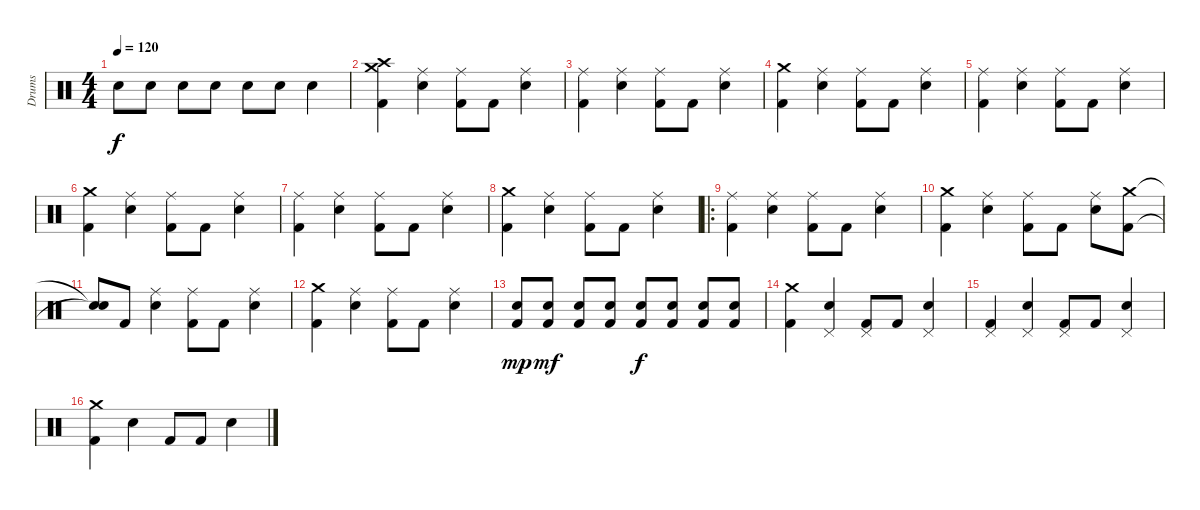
\track ("Drums" "Drums") {instrument percussion}
\staff {score}
\articulation defaults
\ts (4 4)
\tempo 120
\clef neutral
\ks c "Snare (hit) 2".8{dy f} "Snare (hit) 2".8 "Snare (hit) 2".8 "Snare (hit) 2".8 "Snare (hit) 2".8 "Snare (hit) 2".8 "Snare (hit) 2".4
|
("Kick (hit) 2" "Crash high (hit)" "Crash medium (hit)").4 ("Ride (middle)" "Snare (hit) 2").4 ("Ride (middle)" "Kick (hit) 2").8 "Kick (hit) 2".8 ("Ride (middle)" "Snare (hit) 2").4 |
("Ride (middle)" "Kick (hit) 2").4 ("Ride (middle)" "Snare (hit) 2").4 ("Ride (middle)" "Kick (hit) 2").8 "Kick (hit) 2".8 ("Ride (middle)" "Snare (hit) 2").4 |
("Kick (hit) 2" "Crash medium (hit)").4 ("Ride (middle)" "Snare (hit) 2").4 ("Ride (middle)" "Kick (hit) 2").8 "Kick (hit) 2".8 ("Ride (middle)" "Snare (hit) 2").4 |
("Ride (middle)" "Kick (hit) 2").4 ("Ride (middle)" "Snare (hit) 2").4 ("Ride (middle)" "Kick (hit) 2").8 "Kick (hit) 2".8 ("Ride (middle)" "Snare (hit) 2").4 |
("Kick (hit) 2" "Crash medium (hit)").4 ("Snare (hit) 2" "Ride (middle)").4 ("Kick (hit) 2" "Ride (middle)").8 "Kick (hit) 2".8 ("Ride (middle)" "Snare (hit) 2").4 |
("Kick (hit) 2" "Ride (middle)").4 ("Snare (hit) 2" "Ride (middle)").4 ("Kick (hit) 2" "Ride (middle)").8 "Kick (hit) 2".8 ("Snare (hit) 2" "Ride (middle)").4 |
("Kick (hit) 2" "Crash medium (hit)").4 ("Snare (hit) 2" "Ride (middle)").4 ("Kick (hit) 2" "Ride (middle)").8 "Kick (hit) 2".8 ("Snare (hit) 2" "Ride (middle)").4 |
\ro
("Kick (hit) 2" "Ride (middle)").4 ("Snare (hit) 2" "Ride (middle)").4 ("Kick (hit) 2" "Ride (middle)").8 "Kick (hit) 2".8 ("Snare (hit) 2" "Ride (middle)").4 |
("Kick (hit) 2" "Crash medium (hit)").4 ("Ride (middle)" "Snare (hit) 2").4 ("Ride (middle)" "Kick (hit) 2").8 "Kick (hit) 2".8 ("Ride (middle)" "Snare (hit) 2").8 ("Crash medium (hit)" "Kick (hit) 2").8 |
("Snare (hit)"{t} "Snare (hit)"{t}).8 "Kick (hit) 2".8 ("Ride (middle)" "Snare (hit) 2").4 ("Ride (middle)" "Kick (hit) 2").8 "Kick (hit) 2".8 ("Ride (middle)" "Snare (hit) 2").4 |
("Kick (hit) 2" "Crash medium (hit)").4 ("Snare (hit) 2" "Ride (middle)").4 ("Kick (hit) 2" "Ride (middle)").8 "Kick (hit) 2".8 ("Snare (hit) 2" "Ride (middle)").4 |
("Kick (hit) 2" "Snare (hit) 2").8{dy mp} ("Kick (hit) 2" "Snare (hit) 2").8{dy mf} ("Kick (hit) 2" "Snare (hit) 2").8 ("Kick (hit) 2" "Snare (hit) 2").8 ("Kick (hit) 2" "Snare (hit) 2").8{dy f} ("Kick (hit) 2" "Snare (hit) 2").8 ("Kick (hit) 2" "Snare (hit) 2").8 ("Kick (hit) 2" "Snare (hit) 2").8 |
("Kick (hit) 2" "Crash medium (hit)").4 ("Pedal Hi-Hat (hit)" "Snare (hit) 2").4 ("Pedal Hi-Hat (hit)" "Kick (hit) 2").8 "Kick (hit) 2".8 ("Pedal Hi-Hat (hit)" "Snare (hit) 2").4 |
("Pedal Hi-Hat (hit)" "Kick (hit) 2").4 ("Pedal Hi-Hat (hit)" "Snare (hit) 2").4 ("Pedal Hi-Hat (hit)" "Kick (hit) 2").8 "Kick (hit) 2".8 ("Pedal Hi-Hat (hit)" "Snare (hit) 2").4 |
("Kick (hit) 2" "Crash medium (hit)").4 "Snare (hit) 2".4 "Kick (hit) 2".8 "Kick (hit) 2".8 "Snare (hit) 2".4
